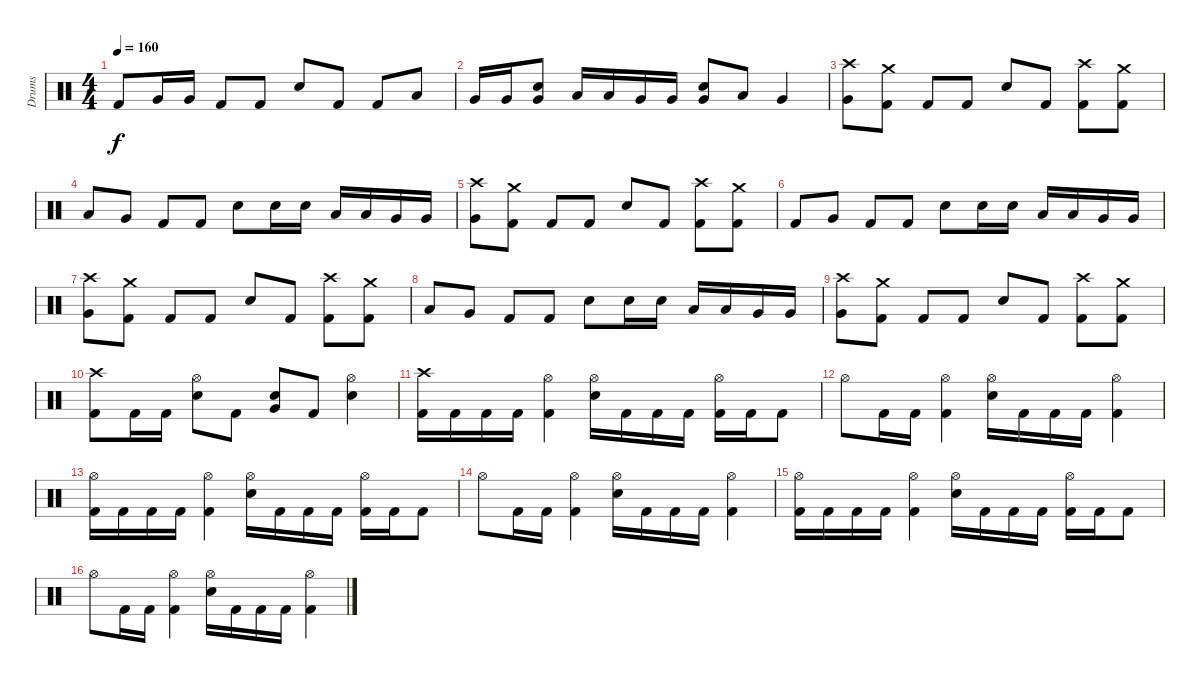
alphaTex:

\track ("Drums" "Drums") {instrument percussion}
\staff {score}
\articulation defaults
\ts (4 4)
\tempo 160
\clef neutral
\ks c "Kick (hit) 2".8{dy f} "Very Low Tom (hit)".16 "Very Low Tom (hit)".16 "Kick (hit) 2".8 "Kick (hit) 2".8 "Electric Snare (hit)".8 "Kick (hit) 2".8 "Kick (hit) 2".8 "Low Tom (hit)".8
|
"Very Low Tom (hit)".16 "Very Low Tom (hit)".16 ("Very Low Tom (hit)" "Electric Snare (hit)").8 "Low Tom (hit)".16 "Low Tom (hit)".16 "Very Low Tom (hit)".16 "Very Low Tom (hit)".16 ("Very Low Tom (hit)" "Electric Snare (hit)").8 "Low Tom (hit)".8 "Very Low Tom (hit)".4 |
("Crash high (hit)" "Very Low Tom (hit)").8 ("Crash medium (hit)" "Kick (hit) 2").8 "Kick (hit) 2".8 "Kick (hit) 2".8 "Electric Snare (hit)".8 "Kick (hit) 2".8 ("Crash high (hit)" "Kick (hit) 2").8 ("Crash medium (hit)" "Kick (hit) 2").8 |
"Low Tom (hit)".8 "Very Low Tom (hit)".8 "Kick (hit) 2".8 "Kick (hit) 2".8 "Electric Snare (hit)".8 "Electric Snare (hit)".16 "Electric Snare (hit)".16 "Low Tom (hit)".16 "Low Tom (hit)".16 "Very Low Tom (hit)".16 "Very Low Tom (hit)".16 |
("Crash high (hit)" "Very Low Tom (hit)").8 ("Crash medium (hit)" "Kick (hit) 2").8 "Kick (hit) 2".8 "Kick (hit) 2".8 "Electric Snare (hit)".8 "Kick (hit) 2".8 ("Crash high (hit)" "Kick (hit) 2").8 ("Crash medium (hit)" "Kick (hit) 2").8 |
"Kick (hit) 2".8 "Very Low Tom (hit)".8 "Kick (hit) 2".8 "Kick (hit) 2".8 "Electric Snare (hit)".8 "Electric Snare (hit)".16 "Electric Snare (hit)".16 "Low Tom (hit)".16 "Low Tom (hit)".16 "Very Low Tom (hit)".16 "Very Low Tom (hit)".16 |
("Crash high (hit)" "Very Low Tom (hit)").8 ("Crash medium (hit)" "Kick (hit) 2").8 "Kick (hit) 2".8 "Kick (hit) 2".8 "Electric Snare (hit)".8 "Kick (hit) 2".8 ("Crash high (hit)" "Kick (hit) 2").8 ("Crash medium (hit)" "Kick (hit) 2").8 |
"Low Tom (hit)".8 "Very Low Tom (hit)".8 "Kick (hit) 2".8 "Kick (hit) 2".8 "Electric Snare (hit)".8 "Electric Snare (hit)".16 "Electric Snare (hit)".16 "Low Tom (hit)".16 "Low Tom (hit)".16 "Very Low Tom (hit)".16 "Very Low Tom (hit)".16 |
("Crash high (hit)" "Very Low Tom (hit)").8 ("Crash medium (hit)" "Kick (hit) 2").8 "Kick (hit) 2".8 "Kick (hit) 2".8 "Electric Snare (hit)".8 "Kick (hit) 2".8 ("Crash high (hit)" "Kick (hit) 2").8 ("Crash medium (hit)" "Kick (hit) 2").8 |
("Crash high (hit)" "Kick (hit) 2").8 "Kick (hit) 2".16 "Kick (hit) 2".16 ("Hi-Hat (open)" "Electric Snare (hit)").8 "Kick (hit) 2".8 ("Very Low Tom (hit)" "Electric Snare (hit)").8 "Kick (hit) 2".8 ("Hi-Hat (open)" "Electric Snare (hit)").4 |
("Crash high (hit)" "Kick (hit) 2").16 "Kick (hit) 2".16 "Kick (hit) 2".16 "Kick (hit) 2".16 ("Hi-Hat (open)" "Kick (hit) 2").4 ("Hi-Hat (open)" "Electric Snare (hit)").16 "Kick (hit) 2".16 "Kick (hit) 2".16 "Kick (hit) 2".16 ("Hi-Hat (open)" "Kick (hit) 2").16 "Kick (hit) 2".16 "Kick (hit) 2".8 |
"Hi-Hat (open)".8 "Kick (hit) 2".16 "Kick (hit) 2".16 ("Hi-Hat (open)" "Kick (hit) 2").4 ("Hi-Hat (open)" "Electric Snare (hit)").16 "Kick (hit) 2".16 "Kick (hit) 2".16 "Kick (hit) 2".16 ("Hi-Hat (open)" "Kick (hit) 2").4 |
("Hi-Hat (open)" "Kick (hit) 2").16 "Kick (hit) 2".16 "Kick (hit) 2".16 "Kick (hit) 2".16 ("Hi-Hat (open)" "Kick (hit) 2").4 ("Hi-Hat (open)" "Electric Snare (hit)").16 "Kick (hit) 2".16 "Kick (hit) 2".16 "Kick (hit) 2".16 ("Hi-Hat (open)" "Kick (hit) 2").16 "Kick (hit) 2".16 "Kick (hit) 2".8 |
"Hi-Hat (open)".8 "Kick (hit) 2".16 "Kick (hit) 2".16 ("Hi-Hat (open)" "Kick (hit) 2").4 ("Hi-Hat (open)" "Electric Snare (hit)").16 "Kick (hit) 2".16 "Kick (hit) 2".16 "Kick (hit) 2".16 ("Hi-Hat (open)" "Kick (hit) 2").4 |
("Hi-Hat (open)" "Kick (hit) 2").16 "Kick (hit) 2".16 "Kick (hit) 2".16 "Kick (hit) 2".16 ("Hi-Hat (open)" "Kick (hit) 2").4 ("Hi-Hat (open)" "Electric Snare (hit)").16 "Kick (hit) 2".16 "Kick (hit) 2".16 "Kick (hit) 2".16 ("Hi-Hat (open)" "Kick (hit) 2").16 "Kick (hit) 2".16 "Kick (hit) 2".8 |
"Hi-Hat (open)".8 "Kick (hit) 2".16 "Kick (hit) 2".16 ("Hi-Hat (open)" "Kick (hit) 2").4 ("Hi-Hat (open)" "Electric Snare (hit)").16 "Kick (hit) 2".16 "Kick (hit) 2".16 "Kick (hit) 2".16 ("Hi-Hat (open)" "Kick (hit) 2").4
